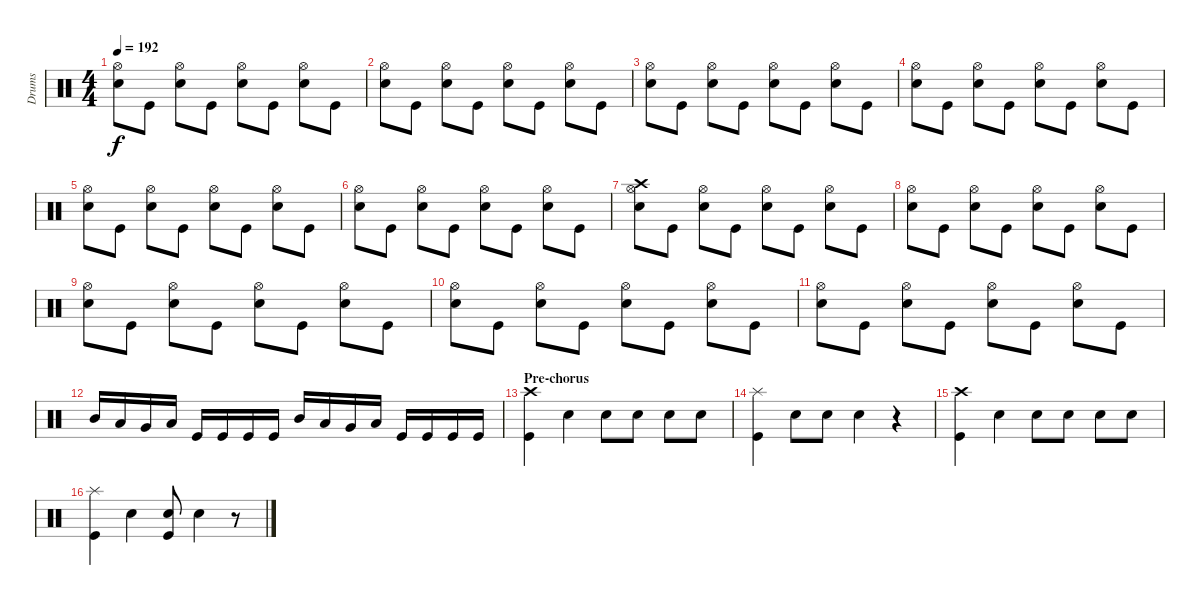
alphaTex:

\track ("Drums" "Drums") {instrument percussion}
\staff {score}
\articulation defaults
\ts (4 4)
\tempo 192
\clef neutral
\ks c
("Hi-Hat (open)" "Snare (hit) 2").8{dy f} "Kick (hit)".8 ("Hi-Hat (open)" "Snare (hit) 2").8 "Kick (hit)".8 ("Hi-Hat (open)" "Snare (hit) 2").8 "Kick (hit)".8 ("Hi-Hat (open)" "Snare (hit) 2").8 "Kick (hit)".8 |
("Hi-Hat (open)" "Snare (hit) 2").8 "Kick (hit)".8 ("Hi-Hat (open)" "Snare (hit) 2").8 "Kick (hit)".8 ("Hi-Hat (open)" "Snare (hit) 2").8 "Kick (hit)".8 ("Hi-Hat (open)" "Snare (hit) 2").8 "Kick (hit)".8 |
("Hi-Hat (open)" "Snare (hit) 2").8 "Kick (hit)".8 ("Hi-Hat (open)" "Snare (hit) 2").8 "Kick (hit)".8 ("Hi-Hat (open)" "Snare (hit) 2").8 "Kick (hit)".8 ("Hi-Hat (open)" "Snare (hit) 2").8 "Kick (hit)".8 |
("Hi-Hat (open)" "Snare (hit) 2").8 "Kick (hit)".8 ("Hi-Hat (open)" "Snare (hit) 2").8 "Kick (hit)".8 ("Hi-Hat (open)" "Snare (hit) 2").8 "Kick (hit)".8 ("Hi-Hat (open)" "Snare (hit) 2").8 "Kick (hit)".8 |
("Hi-Hat (open)" "Snare (hit) 2").8 "Kick (hit)".8 ("Hi-Hat (open)" "Snare (hit) 2").8 "Kick (hit)".8 ("Hi-Hat (open)" "Snare (hit) 2").8 "Kick (hit)".8 ("Hi-Hat (open)" "Snare (hit) 2").8 "Kick (hit)".8 |
("Hi-Hat (open)" "Snare (hit) 2").8 "Kick (hit)".8 ("Hi-Hat (open)" "Snare (hit) 2").8 "Kick (hit)".8 ("Hi-Hat (open)" "Snare (hit) 2").8 "Kick (hit)".8 ("Hi-Hat (open)" "Snare (hit) 2").8 "Kick (hit)".8 |
("Crash high (hit)" "Hi-Hat (open)" "Snare (hit) 2").8 "Kick (hit)".8 ("Hi-Hat (open)" "Snare (hit) 2").8 "Kick (hit)".8 ("Hi-Hat (open)" "Snare (hit) 2").8 "Kick (hit)".8 ("Hi-Hat (open)" "Snare (hit) 2").8 "Kick (hit)".8 |
("Hi-Hat (open)" "Snare (hit) 2").8 "Kick (hit)".8 ("Hi-Hat (open)" "Snare (hit) 2").8 "Kick (hit)".8 ("Hi-Hat (open)" "Snare (hit) 2").8 "Kick (hit)".8 ("Hi-Hat (open)" "Snare (hit) 2").8 "Kick (hit)".8 |
("Hi-Hat (open)" "Snare (hit) 2").8 "Kick (hit)".8 ("Hi-Hat (open)" "Snare (hit) 2").8 "Kick (hit)".8 ("Hi-Hat (open)" "Snare (hit) 2").8 "Kick (hit)".8 ("Hi-Hat (open)" "Snare (hit) 2").8 "Kick (hit)".8 |
("Hi-Hat (open)" "Snare (hit) 2").8 "Kick (hit)".8 ("Hi-Hat (open)" "Snare (hit) 2").8 "Kick (hit)".8 ("Hi-Hat (open)" "Snare (hit) 2").8 "Kick (hit)".8 ("Hi-Hat (open)" "Snare (hit) 2").8 "Kick (hit)".8 |
("Hi-Hat (open)" "Snare (hit) 2").8 "Kick (hit)".8 ("Hi-Hat (open)" "Snare (hit) 2").8 "Kick (hit)".8 ("Hi-Hat (open)" "Snare (hit) 2").8 "Kick (hit)".8 ("Hi-Hat (open)" "Snare (hit) 2").8 "Kick (hit)".8 |
"Mid Tom (hit)".16 "Low Tom (hit)".16 "Very Low Tom (hit)".16 "Low Floor Tom (hit)".16 "Kick (hit)".16 "Kick (hit)".16 "Kick (hit)".16 "Kick (hit)".16 "Mid Tom (hit)".16 "Low Tom (hit)".16 "Very Low Tom (hit)".16 "Low Floor Tom (hit)".16 "Kick (hit)".16 "Kick (hit)".16 "Kick (hit)".16 "Kick (hit)".16 |
\section ("" "Pre-chorus")
("Crash high (hit)" "Kick (hit)").4 "Snare (hit) 2".4 "Snare (hit) 2".8 "Snare (hit) 2".8 "Snare (hit) 2".8 "Snare (hit) 2".8 |
("Splash (hit)" "Kick (hit)").4 "Snare (hit) 2".8 "Snare (hit) 2".8 "Snare (hit) 2".4 r.4 |
("Crash high (hit)" "Kick (hit)").4 "Snare (hit) 2".4 "Snare (hit) 2".8 "Snare (hit) 2".8 "Snare (hit) 2".8 "Snare (hit) 2".8 |
("Splash (hit)" "Kick (hit)").4 "Snare (hit) 2"{tr (38 16)}.4 ("Snare (hit) 2" "Kick (hit)").8 "Snare (hit) 2".4 r.8
